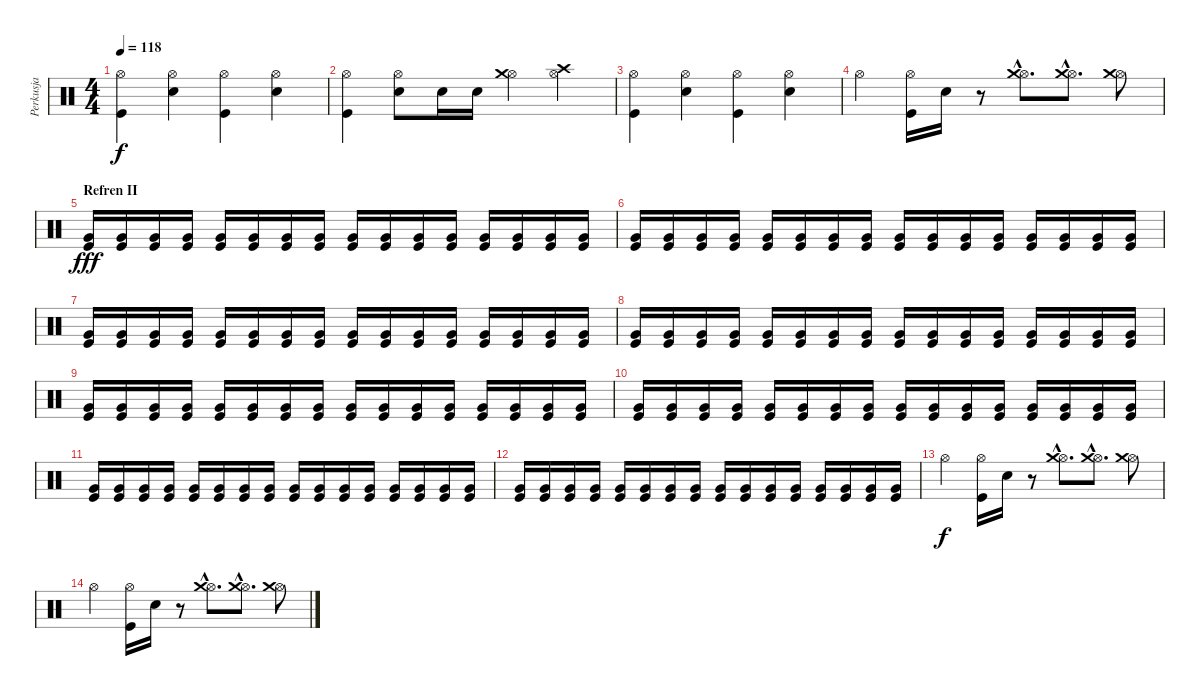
\track ("Perkusja" "Perkusja") {instrument percussion}
\staff {score}
\articulation defaults
\ts (4 4)
\tempo 118
\clef neutral
\ks c
("Hi-Hat (open)" "Kick (hit)").4{dy f} ("Hi-Hat (open)" "Electric Snare (hit)").4 ("Hi-Hat (open)" "Kick (hit)").4 ("Hi-Hat (open)" "Electric Snare (hit)").4 |
("Hi-Hat (open)" "Kick (hit)").4 ("Hi-Hat (open)" "Electric Snare (hit)").8 "Electric Snare (hit)".16 "Electric Snare (hit)".16 ("Hi-Hat (open)" "Crash medium (hit)").4 ("Hi-Hat (open)" "Crash high (hit)").4 |
("Hi-Hat (open)" "Kick (hit)").4 ("Hi-Hat (open)" "Electric Snare (hit)").4 ("Hi-Hat (open)" "Kick (hit)").4 ("Hi-Hat (open)" "Electric Snare (hit)").4 |
"Hi-Hat (open)".4 ("Hi-Hat (open)" "Kick (hit)").16 "Electric Snare (hit)".16 r.8 ("Hi-Hat (open)"{hac} "Crash medium (hit)"{hac}).8{d} ("Hi-Hat (open)"{hac} "Crash medium (hit)"{hac}).8{d} ("Hi-Hat (open)" "Crash medium (hit)").8 |
\section ("" "Refren II")
("Very Low Tom (hit)" "Kick (hit)").16{dy fff} ("Very Low Tom (hit)" "Kick (hit)").16 ("Very Low Tom (hit)" "Kick (hit)").16 ("Very Low Tom (hit)" "Kick (hit)").16 ("Very Low Tom (hit)" "Kick (hit)").16 ("Very Low Tom (hit)" "Kick (hit)").16 ("Very Low Tom (hit)" "Kick (hit)").16 ("Very Low Tom (hit)" "Kick (hit)").16 ("Very Low Tom (hit)" "Kick (hit)").16 ("Very Low Tom (hit)" "Kick (hit)").16 ("Very Low Tom (hit)" "Kick (hit)").16 ("Very Low Tom (hit)" "Kick (hit)").16 ("Very Low Tom (hit)" "Kick (hit)").16 ("Very Low Tom (hit)" "Kick (hit)").16 ("Very Low Tom (hit)" "Kick (hit)").16 ("Very Low Tom (hit)" "Kick (hit)").16 |
("Very Low Tom (hit)" "Kick (hit)").16 ("Very Low Tom (hit)" "Kick (hit)").16 ("Very Low Tom (hit)" "Kick (hit)").16 ("Very Low Tom (hit)" "Kick (hit)").16 ("Very Low Tom (hit)" "Kick (hit)").16 ("Very Low Tom (hit)" "Kick (hit)").16 ("Very Low Tom (hit)" "Kick (hit)").16 ("Very Low Tom (hit)" "Kick (hit)").16 ("Very Low Tom (hit)" "Kick (hit)").16 ("Very Low Tom (hit)" "Kick (hit)").16 ("Very Low Tom (hit)" "Kick (hit)").16 ("Very Low Tom (hit)" "Kick (hit)").16 ("Very Low Tom (hit)" "Kick (hit)").16 ("Very Low Tom (hit)" "Kick (hit)").16 ("Very Low Tom (hit)" "Kick (hit)").16 ("Very Low Tom (hit)" "Kick (hit)").16 |
("Very Low Tom (hit)" "Kick (hit)").16 ("Very Low Tom (hit)" "Kick (hit)").16 ("Very Low Tom (hit)" "Kick (hit)").16 ("Very Low Tom (hit)" "Kick (hit)").16 ("Very Low Tom (hit)" "Kick (hit)").16 ("Very Low Tom (hit)" "Kick (hit)").16 ("Very Low Tom (hit)" "Kick (hit)").16 ("Very Low Tom (hit)" "Kick (hit)").16 ("Very Low Tom (hit)" "Kick (hit)").16 ("Very Low Tom (hit)" "Kick (hit)").16 ("Very Low Tom (hit)" "Kick (hit)").16 ("Very Low Tom (hit)" "Kick (hit)").16 ("Very Low Tom (hit)" "Kick (hit)").16 ("Very Low Tom (hit)" "Kick (hit)").16 ("Very Low Tom (hit)" "Kick (hit)").16 ("Very Low Tom (hit)" "Kick (hit)").16 |
("Very Low Tom (hit)" "Kick (hit)").16 ("Very Low Tom (hit)" "Kick (hit)").16 ("Very Low Tom (hit)" "Kick (hit)").16 ("Very Low Tom (hit)" "Kick (hit)").16 ("Very Low Tom (hit)" "Kick (hit)").16 ("Very Low Tom (hit)" "Kick (hit)").16 ("Very Low Tom (hit)" "Kick (hit)").16 ("Very Low Tom (hit)" "Kick (hit)").16 ("Very Low Tom (hit)" "Kick (hit)").16 ("Very Low Tom (hit)" "Kick (hit)").16 ("Very Low Tom (hit)" "Kick (hit)").16 ("Very Low Tom (hit)" "Kick (hit)").16 ("Very Low Tom (hit)" "Kick (hit)").16 ("Very Low Tom (hit)" "Kick (hit)").16 ("Very Low Tom (hit)" "Kick (hit)").16 ("Very Low Tom (hit)" "Kick (hit)").16 |
("Very Low Tom (hit)" "Kick (hit)").16 ("Very Low Tom (hit)" "Kick (hit)").16 ("Very Low Tom (hit)" "Kick (hit)").16 ("Very Low Tom (hit)" "Kick (hit)").16 ("Very Low Tom (hit)" "Kick (hit)").16 ("Very Low Tom (hit)" "Kick (hit)").16 ("Very Low Tom (hit)" "Kick (hit)").16 ("Very Low Tom (hit)" "Kick (hit)").16 ("Very Low Tom (hit)" "Kick (hit)").16 ("Very Low Tom (hit)" "Kick (hit)").16 ("Very Low Tom (hit)" "Kick (hit)").16 ("Very Low Tom (hit)" "Kick (hit)").16 ("Very Low Tom (hit)" "Kick (hit)").16 ("Very Low Tom (hit)" "Kick (hit)").16 ("Very Low Tom (hit)" "Kick (hit)").16 ("Very Low Tom (hit)" "Kick (hit)").16 |
("Very Low Tom (hit)" "Kick (hit)").16 ("Very Low Tom (hit)" "Kick (hit)").16 ("Very Low Tom (hit)" "Kick (hit)").16 ("Very Low Tom (hit)" "Kick (hit)").16 ("Very Low Tom (hit)" "Kick (hit)").16 ("Very Low Tom (hit)" "Kick (hit)").16 ("Very Low Tom (hit)" "Kick (hit)").16 ("Very Low Tom (hit)" "Kick (hit)").16 ("Very Low Tom (hit)" "Kick (hit)").16 ("Very Low Tom (hit)" "Kick (hit)").16 ("Very Low Tom (hit)" "Kick (hit)").16 ("Very Low Tom (hit)" "Kick (hit)").16 ("Very Low Tom (hit)" "Kick (hit)").16 ("Very Low Tom (hit)" "Kick (hit)").16 ("Very Low Tom (hit)" "Kick (hit)").16 ("Very Low Tom (hit)" "Kick (hit)").16 |
("Very Low Tom (hit)" "Kick (hit)").16 ("Very Low Tom (hit)" "Kick (hit)").16 ("Very Low Tom (hit)" "Kick (hit)").16 ("Very Low Tom (hit)" "Kick (hit)").16 ("Very Low Tom (hit)" "Kick (hit)").16 ("Very Low Tom (hit)" "Kick (hit)").16 ("Very Low Tom (hit)" "Kick (hit)").16 ("Very Low Tom (hit)" "Kick (hit)").16 ("Very Low Tom (hit)" "Kick (hit)").16 ("Very Low Tom (hit)" "Kick (hit)").16 ("Very Low Tom (hit)" "Kick (hit)").16 ("Very Low Tom (hit)" "Kick (hit)").16 ("Very Low Tom (hit)" "Kick (hit)").16 ("Very Low Tom (hit)" "Kick (hit)").16 ("Very Low Tom (hit)" "Kick (hit)").16 ("Very Low Tom (hit)" "Kick (hit)").16 |
("Very Low Tom (hit)" "Kick (hit)").16 ("Very Low Tom (hit)" "Kick (hit)").16 ("Very Low Tom (hit)" "Kick (hit)").16 ("Very Low Tom (hit)" "Kick (hit)").16 ("Very Low Tom (hit)" "Kick (hit)").16 ("Very Low Tom (hit)" "Kick (hit)").16 ("Very Low Tom (hit)" "Kick (hit)").16 ("Very Low Tom (hit)" "Kick (hit)").16 ("Very Low Tom (hit)" "Kick (hit)").16 ("Very Low Tom (hit)" "Kick (hit)").16 ("Very Low Tom (hit)" "Kick (hit)").16 ("Very Low Tom (hit)" "Kick (hit)").16 ("Very Low Tom (hit)" "Kick (hit)").16 ("Very Low Tom (hit)" "Kick (hit)").16 ("Very Low Tom (hit)" "Kick (hit)").16 ("Very Low Tom (hit)" "Kick (hit)").16 |
"Hi-Hat (open)".4{dy f} ("Hi-Hat (open)" "Kick (hit)").16 "Electric Snare (hit)".16 r.8 ("Hi-Hat (open)"{hac} "Crash medium (hit)"{hac}).8{d} ("Hi-Hat (open)"{hac} "Crash medium (hit)"{hac}).8{d} ("Hi-Hat (open)" "Crash medium (hit)").8 |
"Hi-Hat (open)".4 ("Hi-Hat (open)" "Kick (hit)").16 "Electric Snare (hit)".16 r.8 ("Hi-Hat (open)"{hac} "Crash medium (hit)"{hac}).8{d} ("Hi-Hat (open)"{hac} "Crash medium (hit)"{hac}).8{d} ("Hi-Hat (open)" "Crash medium (hit)").8
